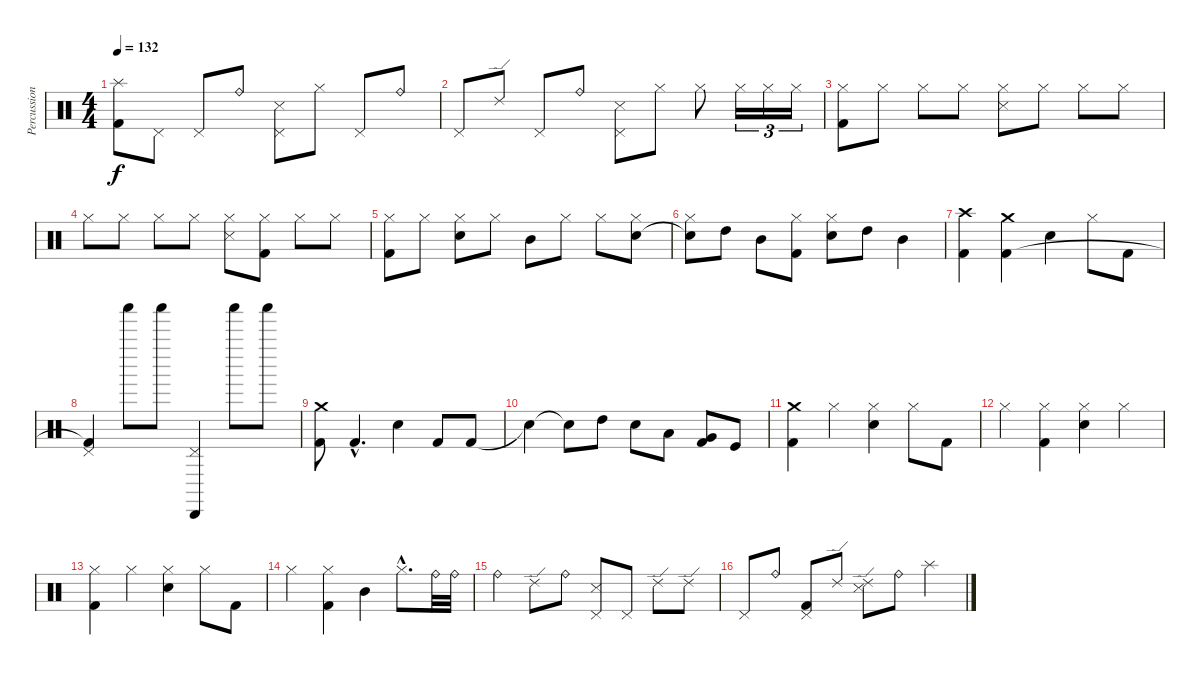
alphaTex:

\track ("Percussion" "Percussion") {instrument percussion}
\staff {score}
\articulation defaults
\ts (4 4)
\tempo 132
\clef neutral
\ks c
("Splash (hit)" "Kick (hit) 2").8{dy f} "Pedal Hi-Hat (hit)".8 "Pedal Hi-Hat (hit)".8 "Ride (bell)".8 ("Pedal Hi-Hat (hit)" "Snare (side stick) 3").8 "Hi-Hat (closed)".8 "Pedal Hi-Hat (hit)".8 "Ride (bell)".8 |
"Pedal Hi-Hat (hit)".8 "Ride (edge) 2".8 "Pedal Hi-Hat (hit)".8 "Ride (bell)".8 ("Pedal Hi-Hat (hit)" "Snare (side stick) 3").8 "Hi-Hat (closed)".8 "Hi-Hat (closed)".8 "Hi-Hat (closed)".16{tu (3 2)} "Hi-Hat (closed)".16{tu (3 2)} "Hi-Hat (closed)".16{tu (3 2)} |
("Hi-Hat (closed)" "Kick (hit) 2").8 "Hi-Hat (closed)".8 "Hi-Hat (closed)".8 "Hi-Hat (closed)".8 ("Hi-Hat (closed)" "Snare (side stick) 3").8 "Hi-Hat (closed)".8 "Hi-Hat (closed)".8 "Hi-Hat (closed)".8 |
"Hi-Hat (closed)".8 "Hi-Hat (closed)".8 "Hi-Hat (closed)".8 "Hi-Hat (closed)".8 ("Hi-Hat (closed)" "Snare (side stick) 3").8 ("Hi-Hat (closed)" "Kick (hit) 2").8 "Hi-Hat (closed)".8 "Hi-Hat (closed)".8 |
("Hi-Hat (closed)" "Kick (hit) 2").8 "Hi-Hat (closed)".8 ("Hi-Hat (closed)" "Snare (hit) 2").8 "Hi-Hat (closed)".8 "Mid Tom (hit)".8 "Hi-Hat (closed)".8 "Hi-Hat (closed)".8 ("Hi-Hat (closed)" "Snare (hit) 2").8 |
("Hi-Hat (closed)" "Snare (hit)"{t}).8 "High Tom (hit)".8 "Mid Tom (hit)".8 ("Hi-Hat (closed)" "Kick (hit) 2").8 ("Hi-Hat (closed)" "Snare (hit) 2").8 "High Tom (hit)".8 "Mid Tom (hit)".4 |
("Crash high (hit)" "Kick (hit) 2").4 ("Crash medium (hit)" "Kick (hit) 2").4 "Snare (hit) 2".4 "Hi-Hat (closed)".8 "Kick (hit) 2".8 |
("Pedal Hi-Hat (hit)" "Kick (hit) 2"{t}).4 "Shaker (hit)".8 "Shaker (hit)".8 ("Pedal Hi-Hat (hit)" "Cabasa (hit)").4 "Shaker (hit)".8 "Shaker (hit)".8 |
("Crash medium (hit)" "Kick (hit) 2").8 "Kick (hit) 2"{hac}.4{d} "Snare (hit) 2".4 "Kick (hit) 2".8 "Kick (hit) 2".8 |
"Snare (hit)"{t}.4 "Snare (hit)"{t}.8 "High Tom (hit)".8 "Snare (hit) 2".8 "Low Tom (hit)".8 ("Very Low Tom (hit)" "Kick (hit) 2").8 "Kick (hit)".8 |
("Crash medium (hit)" "Kick (hit) 2").4 "Hi-Hat (closed)".4 ("Hi-Hat (closed)" "Snare (hit) 2").4 "Hi-Hat (closed)".8 "Kick (hit) 2".8 |
"Hi-Hat (closed)".4 ("Hi-Hat (closed)" "Kick (hit) 2").4 ("Hi-Hat (closed)" "Snare (hit) 2").4 "Hi-Hat (closed)".4 |
("Hi-Hat (closed)" "Kick (hit) 2").4 "Hi-Hat (closed)".4 ("Hi-Hat (closed)" "Snare (hit) 2").4 "Hi-Hat (closed)".8 "Kick (hit) 2".8 |
"Hi-Hat (closed)".4 ("Hi-Hat (closed)" "Kick (hit) 2").4 "Mid Tom (hit)".4 "Hi-Hat (closed)"{hac}.8{d} "Ride (bell)".32 "Ride (bell)".32 |
"Ride (bell)".4 "Ride (edge) 2".8 "Ride (bell)".8 ("Pedal Hi-Hat (hit)" "Snare (side stick) 3").8 "Pedal Hi-Hat (hit)".8 "Ride (edge) 2".8 "Ride (edge) 2".8 |
"Pedal Hi-Hat (hit)".8 "Ride (bell)".8 ("Pedal Hi-Hat (hit)" "Kick (hit) 2").8 "Ride (edge) 2".8 ("Ride (edge) 2" "Snare (side stick) 3").8 "Ride (bell)".8 "Splash (hit)".4
